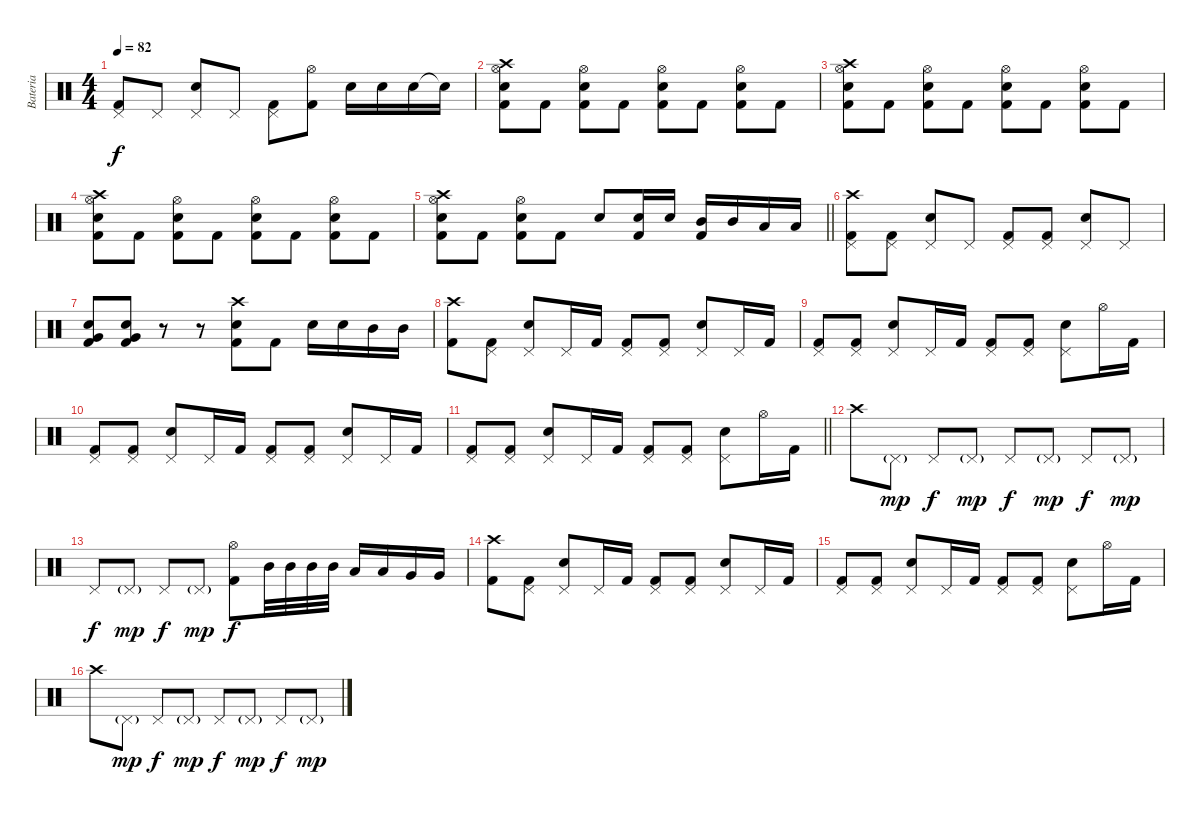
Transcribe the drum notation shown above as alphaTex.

\track ("Bateria" "Bateria") {instrument percussion}
\staff {score}
\articulation defaults
\ts (4 4)
\tempo 82
\clef neutral
\ks c
("Pedal Hi-Hat (hit)" "Kick (hit) 2").8{dy f} "Pedal Hi-Hat (hit)".8 ("Pedal Hi-Hat (hit)" "Snare (hit) 2").8 "Pedal Hi-Hat (hit)".8 ("Pedal Hi-Hat (hit)" "Kick (hit) 2").8 ("Hi-Hat (open)" "Kick (hit) 2").8 "Snare (hit) 2".16 "Snare (hit) 2".16 "Snare (hit) 2".16 "Snare (hit)"{t}.16 |
("Crash high (hit)" "Hi-Hat (open)" "Snare (hit) 2" "Kick (hit) 2").8 "Kick (hit) 2".8 ("Hi-Hat (open)" "Snare (hit) 2" "Kick (hit) 2").8 "Kick (hit) 2".8 ("Hi-Hat (open)" "Snare (hit) 2" "Kick (hit) 2").8 "Kick (hit) 2".8 ("Hi-Hat (open)" "Snare (hit) 2" "Kick (hit) 2").8 "Kick (hit) 2".8 |
("Crash high (hit)" "Hi-Hat (open)" "Snare (hit) 2" "Kick (hit) 2").8 "Kick (hit) 2".8 ("Hi-Hat (open)" "Snare (hit) 2" "Kick (hit) 2").8 "Kick (hit) 2".8 ("Hi-Hat (open)" "Snare (hit) 2" "Kick (hit) 2").8 "Kick (hit) 2".8 ("Hi-Hat (open)" "Snare (hit) 2" "Kick (hit) 2").8 "Kick (hit) 2".8 |
("Crash high (hit)" "Hi-Hat (open)" "Snare (hit) 2" "Kick (hit) 2").8 "Kick (hit) 2".8 ("Hi-Hat (open)" "Snare (hit) 2" "Kick (hit) 2").8 "Kick (hit) 2".8 ("Hi-Hat (open)" "Snare (hit) 2" "Kick (hit) 2").8 "Kick (hit) 2".8 ("Hi-Hat (open)" "Snare (hit) 2" "Kick (hit) 2").8 "Kick (hit) 2".8 |
\barLineRight lightlight
("Crash high (hit)" "Hi-Hat (open)" "Snare (hit) 2" "Kick (hit) 2").8 "Kick (hit) 2".8 ("Hi-Hat (open)" "Snare (hit) 2" "Kick (hit) 2").8 "Kick (hit) 2".8 "Snare (hit) 2".8 ("Snare (hit) 2" "Kick (hit) 2").16 "Snare (hit) 2".16 ("Mid Tom (hit)" "Kick (hit) 2").16 "Mid Tom (hit)".16 "Low Tom (hit)".16 "Low Tom (hit)".16 |
("Crash high (hit)" "Pedal Hi-Hat (hit)" "Kick (hit) 2").8 ("Pedal Hi-Hat (hit)" "Kick (hit) 2").8 ("Pedal Hi-Hat (hit)" "Snare (hit) 2").8 "Pedal Hi-Hat (hit)".8 ("Pedal Hi-Hat (hit)" "Kick (hit) 2").8 ("Pedal Hi-Hat (hit)" "Kick (hit) 2").8 ("Pedal Hi-Hat (hit)" "Snare (hit) 2").8 "Pedal Hi-Hat (hit)".8 |
("Very Low Tom (hit)" "Snare (hit) 2" "Kick (hit) 2").8 ("Very Low Tom (hit)" "Snare (hit) 2" "Kick (hit) 2").8 r.8 r.8 ("Crash high (hit)" "Snare (hit) 2" "Kick (hit) 2").8 "Kick (hit) 2".8 "Snare (hit) 2".16 "Snare (hit) 2".16 "Mid Tom (hit)".16 "Mid Tom (hit)".16 |
("Crash high (hit)" "Kick (hit) 2").8 ("Pedal Hi-Hat (hit)" "Kick (hit) 2").8 ("Pedal Hi-Hat (hit)" "Snare (hit) 2").8 "Pedal Hi-Hat (hit)".16 "Kick (hit) 2".16 ("Pedal Hi-Hat (hit)" "Kick (hit) 2").8 ("Pedal Hi-Hat (hit)" "Kick (hit) 2").8 ("Pedal Hi-Hat (hit)" "Snare (hit) 2").8 "Pedal Hi-Hat (hit)".16 "Kick (hit) 2".16 |
("Pedal Hi-Hat (hit)" "Kick (hit) 2").8 ("Pedal Hi-Hat (hit)" "Kick (hit) 2").8 ("Pedal Hi-Hat (hit)" "Snare (hit) 2").8 "Pedal Hi-Hat (hit)".16 "Kick (hit) 2".16 ("Pedal Hi-Hat (hit)" "Kick (hit) 2").8 ("Pedal Hi-Hat (hit)" "Kick (hit) 2").8 ("Pedal Hi-Hat (hit)" "Snare (hit) 2").8 "Hi-Hat (open)".16 "Kick (hit) 2".16 |
("Pedal Hi-Hat (hit)" "Kick (hit) 2").8 ("Pedal Hi-Hat (hit)" "Kick (hit) 2").8 ("Pedal Hi-Hat (hit)" "Snare (hit) 2").8 "Pedal Hi-Hat (hit)".16 "Kick (hit) 2".16 ("Pedal Hi-Hat (hit)" "Kick (hit) 2").8 ("Pedal Hi-Hat (hit)" "Kick (hit) 2").8 ("Pedal Hi-Hat (hit)" "Snare (hit) 2").8 "Pedal Hi-Hat (hit)".16 "Kick (hit) 2".16 |
\barLineRight lightlight
("Pedal Hi-Hat (hit)" "Kick (hit) 2").8 ("Pedal Hi-Hat (hit)" "Kick (hit) 2").8 ("Pedal Hi-Hat (hit)" "Snare (hit) 2").8 "Pedal Hi-Hat (hit)".16 "Kick (hit) 2".16 ("Pedal Hi-Hat (hit)" "Kick (hit) 2").8 ("Pedal Hi-Hat (hit)" "Kick (hit) 2").8 ("Pedal Hi-Hat (hit)" "Snare (hit) 2").8 "Hi-Hat (open)".16 "Kick (hit) 2".16 |
"Crash high (hit)".8 "Pedal Hi-Hat (hit)"{g}.8{dy mp} "Pedal Hi-Hat (hit)".8{dy f} "Pedal Hi-Hat (hit)"{g}.8{dy mp} "Pedal Hi-Hat (hit)".8{dy f} "Pedal Hi-Hat (hit)"{g}.8{dy mp} "Pedal Hi-Hat (hit)".8{dy f} "Pedal Hi-Hat (hit)"{g}.8{dy mp} |
"Pedal Hi-Hat (hit)".8{dy f} "Pedal Hi-Hat (hit)"{g}.8{dy mp} "Pedal Hi-Hat (hit)".8{dy f} "Pedal Hi-Hat (hit)"{g}.8{dy mp} ("Hi-Hat (open)" "Kick (hit) 2").8{dy f} "Mid Tom (hit)".32 "Mid Tom (hit)".32 "Mid Tom (hit)".32 "Mid Tom (hit)".32 "Low Tom (hit)".16 "Low Tom (hit)".16 "Very Low Tom (hit)".16 "Very Low Tom (hit)".16 |
("Crash high (hit)" "Kick (hit) 2").8 ("Pedal Hi-Hat (hit)" "Kick (hit) 2").8 ("Pedal Hi-Hat (hit)" "Snare (hit) 2").8 "Pedal Hi-Hat (hit)".16 "Kick (hit) 2".16 ("Pedal Hi-Hat (hit)" "Kick (hit) 2").8 ("Pedal Hi-Hat (hit)" "Kick (hit) 2").8 ("Pedal Hi-Hat (hit)" "Snare (hit) 2").8 "Pedal Hi-Hat (hit)".16 "Kick (hit) 2".16 |
("Pedal Hi-Hat (hit)" "Kick (hit) 2").8 ("Pedal Hi-Hat (hit)" "Kick (hit) 2").8 ("Pedal Hi-Hat (hit)" "Snare (hit) 2").8 "Pedal Hi-Hat (hit)".16 "Kick (hit) 2".16 ("Pedal Hi-Hat (hit)" "Kick (hit) 2").8 ("Pedal Hi-Hat (hit)" "Kick (hit) 2").8 ("Pedal Hi-Hat (hit)" "Snare (hit) 2").8 "Hi-Hat (open)".16 "Kick (hit) 2".16 |
"Crash high (hit)".8 "Pedal Hi-Hat (hit)"{g}.8{dy mp} "Pedal Hi-Hat (hit)".8{dy f} "Pedal Hi-Hat (hit)"{g}.8{dy mp} "Pedal Hi-Hat (hit)".8{dy f} "Pedal Hi-Hat (hit)"{g}.8{dy mp} "Pedal Hi-Hat (hit)".8{dy f} "Pedal Hi-Hat (hit)"{g}.8{dy mp}
